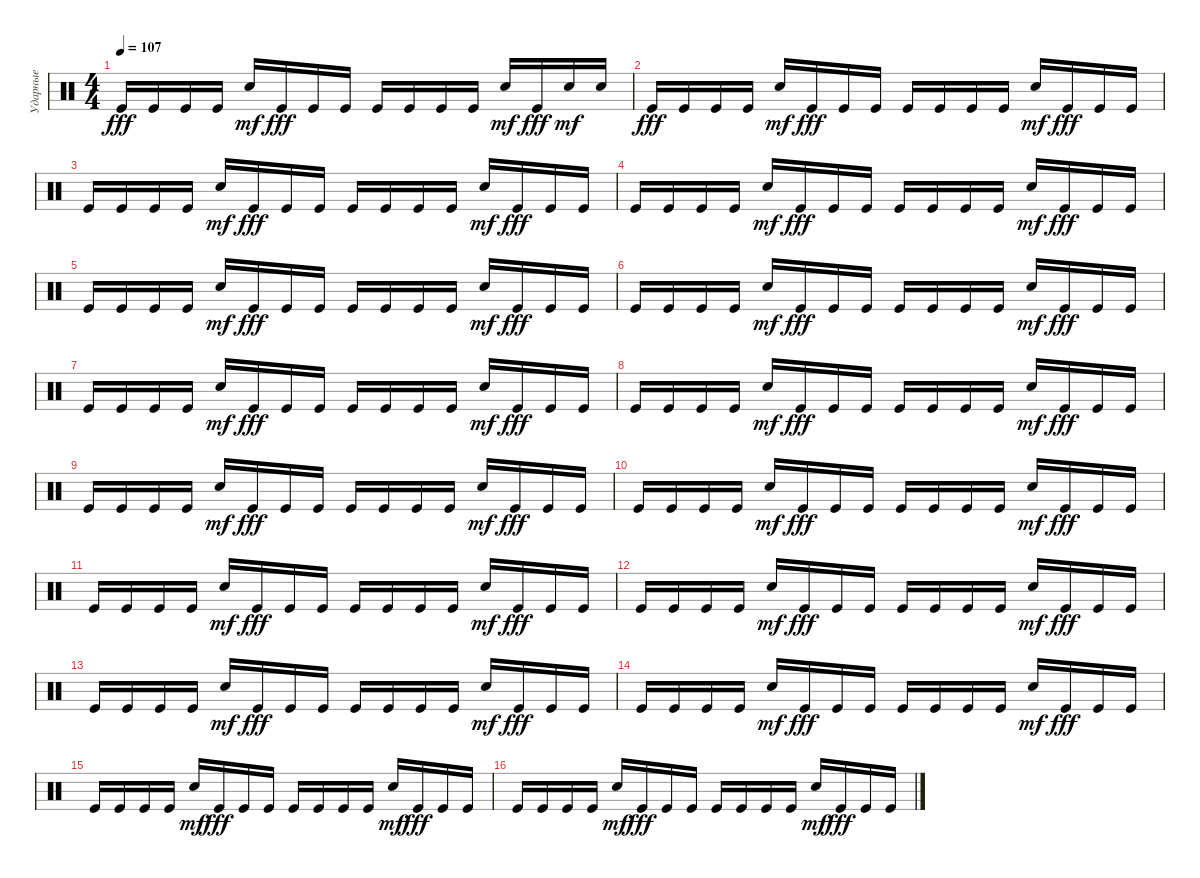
\track ("Ударные" "Ударные") {instrument percussion}
\staff {score}
\articulation defaults
\ts (4 4)
\tempo 107
\clef neutral
\ks c "Kick (hit)".16{dy fff} "Kick (hit)".16 "Kick (hit)".16 "Kick (hit)".16 "Electric Snare (hit)".16{dy mf} "Kick (hit)".16{dy fff} "Kick (hit)".16 "Kick (hit)".16 "Kick (hit)".16 "Kick (hit)".16 "Kick (hit)".16 "Kick (hit)".16 "Electric Snare (hit)".16{dy mf} "Kick (hit)".16{dy fff} "Electric Snare (hit)".16{dy mf} "Electric Snare (hit)".16
|
"Kick (hit)".16{dy fff} "Kick (hit)".16 "Kick (hit)".16 "Kick (hit)".16 "Electric Snare (hit)".16{dy mf} "Kick (hit)".16{dy fff} "Kick (hit)".16 "Kick (hit)".16 "Kick (hit)".16 "Kick (hit)".16 "Kick (hit)".16 "Kick (hit)".16 "Electric Snare (hit)".16{dy mf} "Kick (hit)".16{dy fff} "Kick (hit)".16 "Kick (hit)".16 |
"Kick (hit)".16 "Kick (hit)".16 "Kick (hit)".16 "Kick (hit)".16 "Electric Snare (hit)".16{dy mf} "Kick (hit)".16{dy fff} "Kick (hit)".16 "Kick (hit)".16 "Kick (hit)".16 "Kick (hit)".16 "Kick (hit)".16 "Kick (hit)".16 "Electric Snare (hit)".16{dy mf} "Kick (hit)".16{dy fff} "Kick (hit)".16 "Kick (hit)".16 |
"Kick (hit)".16 "Kick (hit)".16 "Kick (hit)".16 "Kick (hit)".16 "Electric Snare (hit)".16{dy mf} "Kick (hit)".16{dy fff} "Kick (hit)".16 "Kick (hit)".16 "Kick (hit)".16 "Kick (hit)".16 "Kick (hit)".16 "Kick (hit)".16 "Electric Snare (hit)".16{dy mf} "Kick (hit)".16{dy fff} "Kick (hit)".16 "Kick (hit)".16 |
"Kick (hit)".16 "Kick (hit)".16 "Kick (hit)".16 "Kick (hit)".16 "Electric Snare (hit)".16{dy mf} "Kick (hit)".16{dy fff} "Kick (hit)".16 "Kick (hit)".16 "Kick (hit)".16 "Kick (hit)".16 "Kick (hit)".16 "Kick (hit)".16 "Electric Snare (hit)".16{dy mf} "Kick (hit)".16{dy fff} "Kick (hit)".16 "Kick (hit)".16 |
"Kick (hit)".16 "Kick (hit)".16 "Kick (hit)".16 "Kick (hit)".16 "Electric Snare (hit)".16{dy mf} "Kick (hit)".16{dy fff} "Kick (hit)".16 "Kick (hit)".16 "Kick (hit)".16 "Kick (hit)".16 "Kick (hit)".16 "Kick (hit)".16 "Electric Snare (hit)".16{dy mf} "Kick (hit)".16{dy fff} "Kick (hit)".16 "Kick (hit)".16 |
"Kick (hit)".16 "Kick (hit)".16 "Kick (hit)".16 "Kick (hit)".16 "Electric Snare (hit)".16{dy mf} "Kick (hit)".16{dy fff} "Kick (hit)".16 "Kick (hit)".16 "Kick (hit)".16 "Kick (hit)".16 "Kick (hit)".16 "Kick (hit)".16 "Electric Snare (hit)".16{dy mf} "Kick (hit)".16{dy fff} "Kick (hit)".16 "Kick (hit)".16 |
"Kick (hit)".16 "Kick (hit)".16 "Kick (hit)".16 "Kick (hit)".16 "Electric Snare (hit)".16{dy mf} "Kick (hit)".16{dy fff} "Kick (hit)".16 "Kick (hit)".16 "Kick (hit)".16 "Kick (hit)".16 "Kick (hit)".16 "Kick (hit)".16 "Electric Snare (hit)".16{dy mf} "Kick (hit)".16{dy fff} "Kick (hit)".16 "Kick (hit)".16 |
"Kick (hit)".16 "Kick (hit)".16 "Kick (hit)".16 "Kick (hit)".16 "Electric Snare (hit)".16{dy mf} "Kick (hit)".16{dy fff} "Kick (hit)".16 "Kick (hit)".16 "Kick (hit)".16 "Kick (hit)".16 "Kick (hit)".16 "Kick (hit)".16 "Electric Snare (hit)".16{dy mf} "Kick (hit)".16{dy fff} "Kick (hit)".16 "Kick (hit)".16 |
"Kick (hit)".16 "Kick (hit)".16 "Kick (hit)".16 "Kick (hit)".16 "Electric Snare (hit)".16{dy mf} "Kick (hit)".16{dy fff} "Kick (hit)".16 "Kick (hit)".16 "Kick (hit)".16 "Kick (hit)".16 "Kick (hit)".16 "Kick (hit)".16 "Electric Snare (hit)".16{dy mf} "Kick (hit)".16{dy fff} "Kick (hit)".16 "Kick (hit)".16 |
"Kick (hit)".16 "Kick (hit)".16 "Kick (hit)".16 "Kick (hit)".16 "Electric Snare (hit)".16{dy mf} "Kick (hit)".16{dy fff} "Kick (hit)".16 "Kick (hit)".16 "Kick (hit)".16 "Kick (hit)".16 "Kick (hit)".16 "Kick (hit)".16 "Electric Snare (hit)".16{dy mf} "Kick (hit)".16{dy fff} "Kick (hit)".16 "Kick (hit)".16 |
"Kick (hit)".16 "Kick (hit)".16 "Kick (hit)".16 "Kick (hit)".16 "Electric Snare (hit)".16{dy mf} "Kick (hit)".16{dy fff} "Kick (hit)".16 "Kick (hit)".16 "Kick (hit)".16 "Kick (hit)".16 "Kick (hit)".16 "Kick (hit)".16 "Electric Snare (hit)".16{dy mf} "Kick (hit)".16{dy fff} "Kick (hit)".16 "Kick (hit)".16 |
"Kick (hit)".16 "Kick (hit)".16 "Kick (hit)".16 "Kick (hit)".16 "Electric Snare (hit)".16{dy mf} "Kick (hit)".16{dy fff} "Kick (hit)".16 "Kick (hit)".16 "Kick (hit)".16 "Kick (hit)".16 "Kick (hit)".16 "Kick (hit)".16 "Electric Snare (hit)".16{dy mf} "Kick (hit)".16{dy fff} "Kick (hit)".16 "Kick (hit)".16 |
"Kick (hit)".16 "Kick (hit)".16 "Kick (hit)".16 "Kick (hit)".16 "Electric Snare (hit)".16{dy mf} "Kick (hit)".16{dy fff} "Kick (hit)".16 "Kick (hit)".16 "Kick (hit)".16 "Kick (hit)".16 "Kick (hit)".16 "Kick (hit)".16 "Electric Snare (hit)".16{dy mf} "Kick (hit)".16{dy fff} "Kick (hit)".16 "Kick (hit)".16 |
"Kick (hit)".16 "Kick (hit)".16 "Kick (hit)".16 "Kick (hit)".16 "Electric Snare (hit)".16{dy mf} "Kick (hit)".16{dy fff} "Kick (hit)".16 "Kick (hit)".16 "Kick (hit)".16 "Kick (hit)".16 "Kick (hit)".16 "Kick (hit)".16 "Electric Snare (hit)".16{dy mf} "Kick (hit)".16{dy fff} "Kick (hit)".16 "Kick (hit)".16 |
"Kick (hit)".16 "Kick (hit)".16 "Kick (hit)".16 "Kick (hit)".16 "Electric Snare (hit)".16{dy mf} "Kick (hit)".16{dy fff} "Kick (hit)".16 "Kick (hit)".16 "Kick (hit)".16 "Kick (hit)".16 "Kick (hit)".16 "Kick (hit)".16 "Electric Snare (hit)".16{dy mf} "Kick (hit)".16{dy fff} "Kick (hit)".16 "Kick (hit)".16
